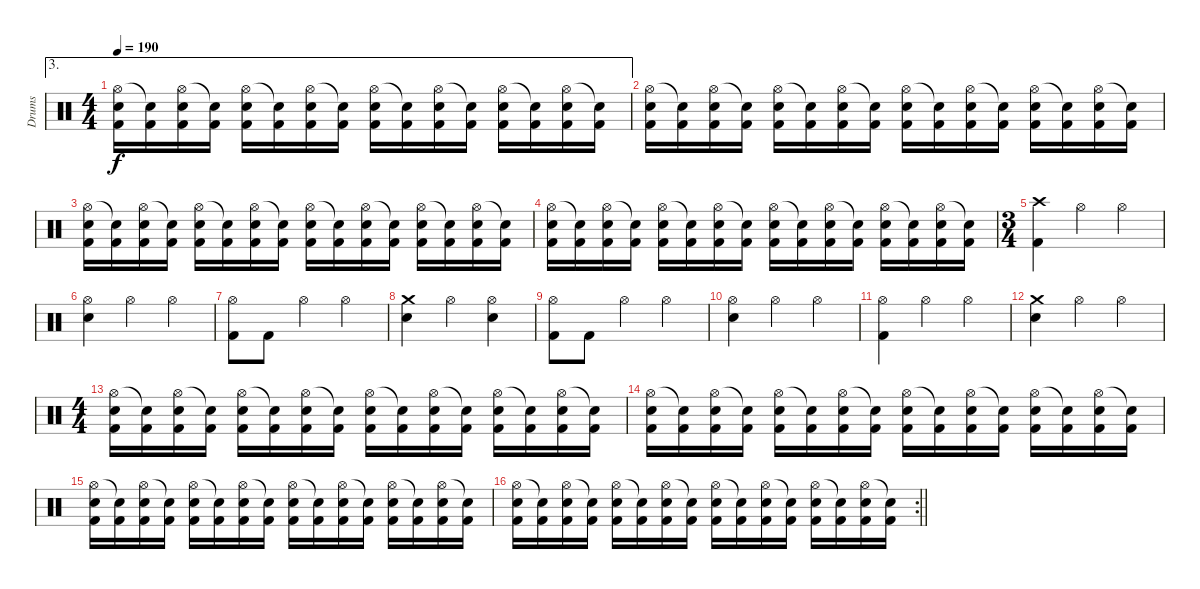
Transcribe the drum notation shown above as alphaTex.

\track ("Drums" "Drums") {instrument percussion}
\staff {score}
\articulation defaults
\ae 3
\ts (4 4)
\tempo 190
\clef neutral
\ks c
("Hi-Hat (open)" "Electric Snare (hit)" "Kick (hit) 2").16{dy f} ("Snare (hit)"{t} "Kick (hit) 2").16 ("Hi-Hat (open)" "Electric Snare (hit)" "Kick (hit) 2").16 ("Snare (hit)"{t} "Kick (hit) 2").16 ("Hi-Hat (open)" "Electric Snare (hit)" "Kick (hit) 2").16 ("Snare (hit)"{t} "Kick (hit) 2").16 ("Hi-Hat (open)" "Electric Snare (hit)" "Kick (hit) 2").16 ("Snare (hit)"{t} "Kick (hit) 2").16 ("Hi-Hat (open)" "Electric Snare (hit)" "Kick (hit) 2").16 ("Snare (hit)"{t} "Kick (hit) 2").16 ("Hi-Hat (open)" "Electric Snare (hit)" "Kick (hit) 2").16 ("Snare (hit)"{t} "Kick (hit) 2").16 ("Hi-Hat (open)" "Electric Snare (hit)" "Kick (hit) 2").16 ("Snare (hit)"{t} "Kick (hit) 2").16 ("Hi-Hat (open)" "Electric Snare (hit)" "Kick (hit) 2").16 ("Snare (hit)"{t} "Kick (hit) 2").16 |
("Hi-Hat (open)" "Electric Snare (hit)" "Kick (hit) 2").16 ("Snare (hit)"{t} "Kick (hit) 2").16 ("Hi-Hat (open)" "Electric Snare (hit)" "Kick (hit) 2").16 ("Snare (hit)"{t} "Kick (hit) 2").16 ("Hi-Hat (open)" "Electric Snare (hit)" "Kick (hit) 2").16 ("Snare (hit)"{t} "Kick (hit) 2").16 ("Hi-Hat (open)" "Electric Snare (hit)" "Kick (hit) 2").16 ("Snare (hit)"{t} "Kick (hit) 2").16 ("Hi-Hat (open)" "Electric Snare (hit)" "Kick (hit) 2").16 ("Snare (hit)"{t} "Kick (hit) 2").16 ("Hi-Hat (open)" "Electric Snare (hit)" "Kick (hit) 2").16 ("Snare (hit)"{t} "Kick (hit) 2").16 ("Hi-Hat (open)" "Electric Snare (hit)" "Kick (hit) 2").16 ("Snare (hit)"{t} "Kick (hit) 2").16 ("Hi-Hat (open)" "Electric Snare (hit)" "Kick (hit) 2").16 ("Snare (hit)"{t} "Kick (hit) 2").16 |
("Hi-Hat (open)" "Electric Snare (hit)" "Kick (hit) 2").16 ("Snare (hit)"{t} "Kick (hit) 2").16 ("Hi-Hat (open)" "Electric Snare (hit)" "Kick (hit) 2").16 ("Snare (hit)"{t} "Kick (hit) 2").16 ("Hi-Hat (open)" "Electric Snare (hit)" "Kick (hit) 2").16 ("Snare (hit)"{t} "Kick (hit) 2").16 ("Hi-Hat (open)" "Electric Snare (hit)" "Kick (hit) 2").16 ("Snare (hit)"{t} "Kick (hit) 2").16 ("Hi-Hat (open)" "Electric Snare (hit)" "Kick (hit) 2").16 ("Snare (hit)"{t} "Kick (hit) 2").16 ("Hi-Hat (open)" "Electric Snare (hit)" "Kick (hit) 2").16 ("Snare (hit)"{t} "Kick (hit) 2").16 ("Hi-Hat (open)" "Electric Snare (hit)" "Kick (hit) 2").16 ("Snare (hit)"{t} "Kick (hit) 2").16 ("Hi-Hat (open)" "Electric Snare (hit)" "Kick (hit) 2").16 ("Snare (hit)"{t} "Kick (hit) 2").16 |
("Hi-Hat (open)" "Electric Snare (hit)" "Kick (hit) 2").16 ("Snare (hit)"{t} "Kick (hit) 2").16 ("Hi-Hat (open)" "Electric Snare (hit)" "Kick (hit) 2").16 ("Snare (hit)"{t} "Kick (hit) 2").16 ("Hi-Hat (open)" "Electric Snare (hit)" "Kick (hit) 2").16 ("Snare (hit)"{t} "Kick (hit) 2").16 ("Hi-Hat (open)" "Electric Snare (hit)" "Kick (hit) 2").16 ("Snare (hit)"{t} "Kick (hit) 2").16 ("Hi-Hat (open)" "Electric Snare (hit)" "Kick (hit) 2").16 ("Snare (hit)"{t} "Kick (hit) 2").16 ("Hi-Hat (open)" "Electric Snare (hit)" "Kick (hit) 2").16 ("Snare (hit)"{t} "Kick (hit) 2").16 ("Hi-Hat (open)" "Electric Snare (hit)" "Kick (hit) 2").16 ("Snare (hit)"{t} "Kick (hit) 2").16 ("Hi-Hat (open)" "Electric Snare (hit)" "Kick (hit) 2").16 ("Snare (hit)"{t} "Kick (hit) 2").16 |
\ts (3 4)
("Crash high (hit)" "Kick (hit) 2").4 "Hi-Hat (open)".4 "Hi-Hat (open)".4 |
("Hi-Hat (open)" "Electric Snare (hit)").4 "Hi-Hat (open)".4 "Hi-Hat (open)".4 |
("Hi-Hat (open)" "Kick (hit) 2").8 "Kick (hit) 2".8 "Hi-Hat (open)".4 "Hi-Hat (open)".4 |
("Crash medium (hit)" "Electric Snare (hit)").4 "Hi-Hat (open)".4 ("Hi-Hat (open)" "Electric Snare (hit)").4 |
("Hi-Hat (open)" "Kick (hit) 2").8 "Kick (hit) 2".8 "Hi-Hat (open)".4 "Hi-Hat (open)".4 |
("Hi-Hat (open)" "Electric Snare (hit)").4 "Hi-Hat (open)".4 "Hi-Hat (open)".4 |
("Hi-Hat (open)" "Kick (hit) 2").4 "Hi-Hat (open)".4 "Hi-Hat (open)".4 |
("Crash medium (hit)" "Electric Snare (hit)").4 "Hi-Hat (open)".4 "Hi-Hat (open)".4 |
\ts (4 4)
("Hi-Hat (open)" "Electric Snare (hit)" "Kick (hit) 2").16 ("Snare (hit)"{t} "Kick (hit) 2").16 ("Hi-Hat (open)" "Electric Snare (hit)" "Kick (hit) 2").16 ("Snare (hit)"{t} "Kick (hit) 2").16 ("Hi-Hat (open)" "Electric Snare (hit)" "Kick (hit) 2").16 ("Snare (hit)"{t} "Kick (hit) 2").16 ("Hi-Hat (open)" "Electric Snare (hit)" "Kick (hit) 2").16 ("Snare (hit)"{t} "Kick (hit) 2").16 ("Hi-Hat (open)" "Electric Snare (hit)" "Kick (hit) 2").16 ("Snare (hit)"{t} "Kick (hit) 2").16 ("Hi-Hat (open)" "Electric Snare (hit)" "Kick (hit) 2").16 ("Snare (hit)"{t} "Kick (hit) 2").16 ("Hi-Hat (open)" "Electric Snare (hit)" "Kick (hit) 2").16 ("Snare (hit)"{t} "Kick (hit) 2").16 ("Hi-Hat (open)" "Electric Snare (hit)" "Kick (hit) 2").16 ("Snare (hit)"{t} "Kick (hit) 2").16 |
("Hi-Hat (open)" "Electric Snare (hit)" "Kick (hit) 2").16 ("Snare (hit)"{t} "Kick (hit) 2").16 ("Hi-Hat (open)" "Electric Snare (hit)" "Kick (hit) 2").16 ("Snare (hit)"{t} "Kick (hit) 2").16 ("Hi-Hat (open)" "Electric Snare (hit)" "Kick (hit) 2").16 ("Snare (hit)"{t} "Kick (hit) 2").16 ("Hi-Hat (open)" "Electric Snare (hit)" "Kick (hit) 2").16 ("Snare (hit)"{t} "Kick (hit) 2").16 ("Hi-Hat (open)" "Electric Snare (hit)" "Kick (hit) 2").16 ("Snare (hit)"{t} "Kick (hit) 2").16 ("Hi-Hat (open)" "Electric Snare (hit)" "Kick (hit) 2").16 ("Snare (hit)"{t} "Kick (hit) 2").16 ("Hi-Hat (open)" "Electric Snare (hit)" "Kick (hit) 2").16 ("Snare (hit)"{t} "Kick (hit) 2").16 ("Hi-Hat (open)" "Electric Snare (hit)" "Kick (hit) 2").16 ("Snare (hit)"{t} "Kick (hit) 2").16 |
("Hi-Hat (open)" "Electric Snare (hit)" "Kick (hit) 2").16 ("Snare (hit)"{t} "Kick (hit) 2").16 ("Hi-Hat (open)" "Electric Snare (hit)" "Kick (hit) 2").16 ("Snare (hit)"{t} "Kick (hit) 2").16 ("Hi-Hat (open)" "Electric Snare (hit)" "Kick (hit) 2").16 ("Snare (hit)"{t} "Kick (hit) 2").16 ("Hi-Hat (open)" "Electric Snare (hit)" "Kick (hit) 2").16 ("Snare (hit)"{t} "Kick (hit) 2").16 ("Hi-Hat (open)" "Electric Snare (hit)" "Kick (hit) 2").16 ("Snare (hit)"{t} "Kick (hit) 2").16 ("Hi-Hat (open)" "Electric Snare (hit)" "Kick (hit) 2").16 ("Snare (hit)"{t} "Kick (hit) 2").16 ("Hi-Hat (open)" "Electric Snare (hit)" "Kick (hit) 2").16 ("Snare (hit)"{t} "Kick (hit) 2").16 ("Hi-Hat (open)" "Electric Snare (hit)" "Kick (hit) 2").16 ("Snare (hit)"{t} "Kick (hit) 2").16 |
\rc 2
\barLineRight lightlight
("Hi-Hat (open)" "Electric Snare (hit)" "Kick (hit) 2").16 ("Snare (hit)"{t} "Kick (hit) 2").16 ("Hi-Hat (open)" "Electric Snare (hit)" "Kick (hit) 2").16 ("Snare (hit)"{t} "Kick (hit) 2").16 ("Hi-Hat (open)" "Electric Snare (hit)" "Kick (hit) 2").16 ("Snare (hit)"{t} "Kick (hit) 2").16 ("Hi-Hat (open)" "Electric Snare (hit)" "Kick (hit) 2").16 ("Snare (hit)"{t} "Kick (hit) 2").16 ("Hi-Hat (open)" "Electric Snare (hit)" "Kick (hit) 2").16 ("Snare (hit)"{t} "Kick (hit) 2").16 ("Hi-Hat (open)" "Electric Snare (hit)" "Kick (hit) 2").16 ("Snare (hit)"{t} "Kick (hit) 2").16 ("Hi-Hat (open)" "Electric Snare (hit)" "Kick (hit) 2").16 ("Snare (hit)"{t} "Kick (hit) 2").16 ("Hi-Hat (open)" "Electric Snare (hit)" "Kick (hit) 2").16 ("Snare (hit)"{t} "Kick (hit) 2").16
